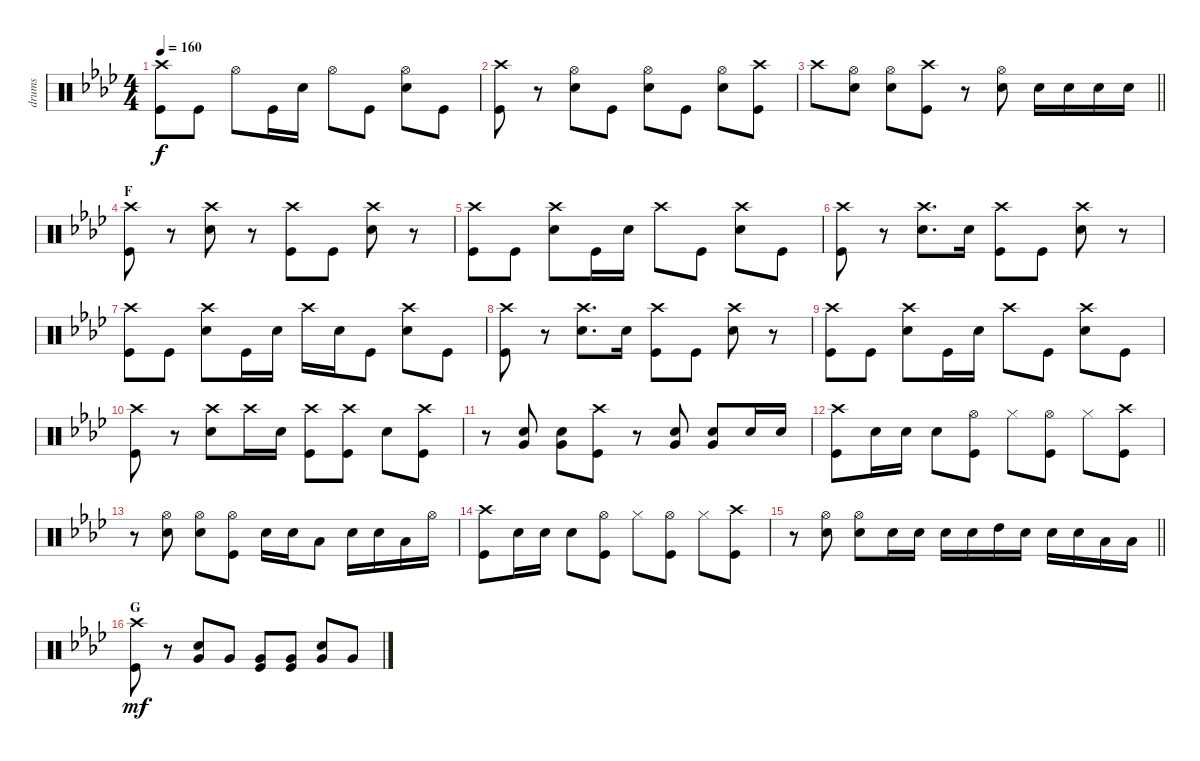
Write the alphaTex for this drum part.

\track ("drums" "drums") {instrument percussion}
\staff {score}
\articulation defaults
\ts (4 4)
\tempo 160
\clef neutral
\ks ab
("Crash high (hit)" "Kick (hit)").8{dy f} "Kick (hit)".8 "Hi-Hat (open)".8 "Kick (hit)".16 "Snare (hit) 2".16 "Hi-Hat (open)".8 "Kick (hit)".8 ("Hi-Hat (open)" "Snare (hit) 2").8 "Kick (hit)".8 |
("Crash high (hit)" "Kick (hit)").8 r.8 ("Hi-Hat (open)" "Snare (hit) 2").8 "Kick (hit)".8 ("Hi-Hat (open)" "Snare (hit) 2").8 "Kick (hit)".8 ("Hi-Hat (open)" "Snare (hit) 2").8 ("Crash high (hit)" "Kick (hit)").8 |
\barLineRight lightlight "Crash high (hit)".8
("Hi-Hat (open)" "Snare (hit) 2").8 ("Hi-Hat (open)" "Snare (hit) 2").8 ("Crash high (hit)" "Kick (hit)").8 r.8 ("Hi-Hat (open)" "Snare (hit) 2").8 "Snare (hit) 2".16 "Snare (hit) 2".16 "Snare (hit) 2".16 "Snare (hit) 2".16 |
\section ("" "F")
("Crash high (hit)" "Kick (hit)").8 r.8 ("Crash high (hit)" "Snare (hit) 2").8 r.8 ("Crash high (hit)" "Kick (hit)").8 "Kick (hit)".8 ("Crash high (hit)" "Snare (hit) 2").8 r.8 |
("Crash high (hit)" "Kick (hit)").8 "Kick (hit)".8 ("Crash high (hit)" "Snare (hit) 2").8 "Kick (hit)".16 "Snare (hit) 2".16 "Crash high (hit)".8 "Kick (hit)".8 ("Crash high (hit)" "Snare (hit) 2").8 "Kick (hit)".8 |
("Crash high (hit)" "Kick (hit)").8 r.8 ("Crash high (hit)" "Snare (hit) 2").8{d} "Snare (hit) 2".16 ("Crash high (hit)" "Kick (hit)").8 "Kick (hit)".8 ("Crash high (hit)" "Snare (hit) 2").8 r.8 |
("Crash high (hit)" "Kick (hit)").8 "Kick (hit)".8 ("Crash high (hit)" "Snare (hit) 2").8 "Kick (hit)".16 "Snare (hit) 2".16 "Crash high (hit)".16 "Snare (hit) 2".16 "Kick (hit)".8 ("Crash high (hit)" "Snare (hit) 2").8 "Kick (hit)".8 |
("Crash high (hit)" "Kick (hit)").8 r.8 ("Crash high (hit)" "Snare (hit) 2").8{d} "Snare (hit) 2".16 ("Crash high (hit)" "Kick (hit)").8 "Kick (hit)".8 ("Crash high (hit)" "Snare (hit) 2").8 r.8 |
("Crash high (hit)" "Kick (hit)").8 "Kick (hit)".8 ("Crash high (hit)" "Snare (hit) 2").8 "Kick (hit)".16 "Snare (hit) 2".16 "Crash high (hit)".8 "Kick (hit)".8 ("Crash high (hit)" "Snare (hit) 2").8 "Kick (hit)".8 |
("Crash high (hit)" "Kick (hit)").8 r.8 ("Crash high (hit)" "Snare (hit) 2").8 "Crash high (hit)".16 "Snare (hit) 2".16 ("Crash high (hit)" "Kick (hit)").8 ("Crash high (hit)" "Kick (hit)").8 "Snare (hit) 2".8 ("Crash high (hit)" "Kick (hit)").8 |
r.8 ("Snare (hit) 2" "Very Low Tom (hit)").8 ("Snare (hit) 2" "Very Low Tom (hit)").8 ("Crash high (hit)" "Kick (hit)").8 r.8 ("Snare (hit) 2" "Very Low Tom (hit)").8 ("Snare (hit) 2" "Very Low Tom (hit)").8 "Snare (hit) 2".16 "Snare (hit) 2".16 |
("Crash high (hit)" "Kick (hit)").8 "Snare (hit) 2".16 "Snare (hit) 2".16 "Snare (hit) 2".8 ("Hi-Hat (open)" "Kick (hit)").8 "Hi-Hat (closed)".8 ("Hi-Hat (open)" "Kick (hit)").8 "Hi-Hat (closed)".8 ("Crash high (hit)" "Kick (hit)").8 |
r.8 ("Hi-Hat (open)" "Snare (hit) 2").8 ("Hi-Hat (open)" "Snare (hit) 2").8 ("Hi-Hat (open)" "Kick (hit)").8 "Snare (hit) 2".16 "Snare (hit) 2".16 "Low Tom (hit)".8 "Snare (hit) 2".16 "Snare (hit) 2".16 "Low Tom (hit)".16 "Hi-Hat (open)".16 |
("Crash high (hit)" "Kick (hit)").8 "Snare (hit) 2".16 "Snare (hit) 2".16 "Snare (hit) 2".8 ("Hi-Hat (open)" "Kick (hit)").8 "Hi-Hat (closed)".8 ("Hi-Hat (open)" "Kick (hit)").8 "Hi-Hat (closed)".8 ("Crash high (hit)" "Kick (hit)").8 |
\barLineRight lightlight
r.8 ("Hi-Hat (open)" "Snare (hit) 2").8 ("Hi-Hat (open)" "Snare (hit) 2").8 "Snare (hit) 2".16 "Snare (hit) 2".16 "Snare (hit) 2".16 "Snare (hit) 2".16 "High Tom (hit)".16 "Snare (hit) 2".16 "Snare (hit) 2".16 "Snare (hit) 2".16 "Low Tom (hit)".16 "Low Tom (hit)".16 |
\section ("" "G")
("Crash high (hit)" "Kick (hit)").8{dy mf} r.8 ("Snare (hit) 2" "Very Low Tom (hit)").8 "Very Low Tom (hit)".8 ("Very Low Tom (hit)" "Kick (hit)").8 ("Very Low Tom (hit)" "Kick (hit)").8 ("Snare (hit) 2" "Very Low Tom (hit)").8 "Very Low Tom (hit)".8
